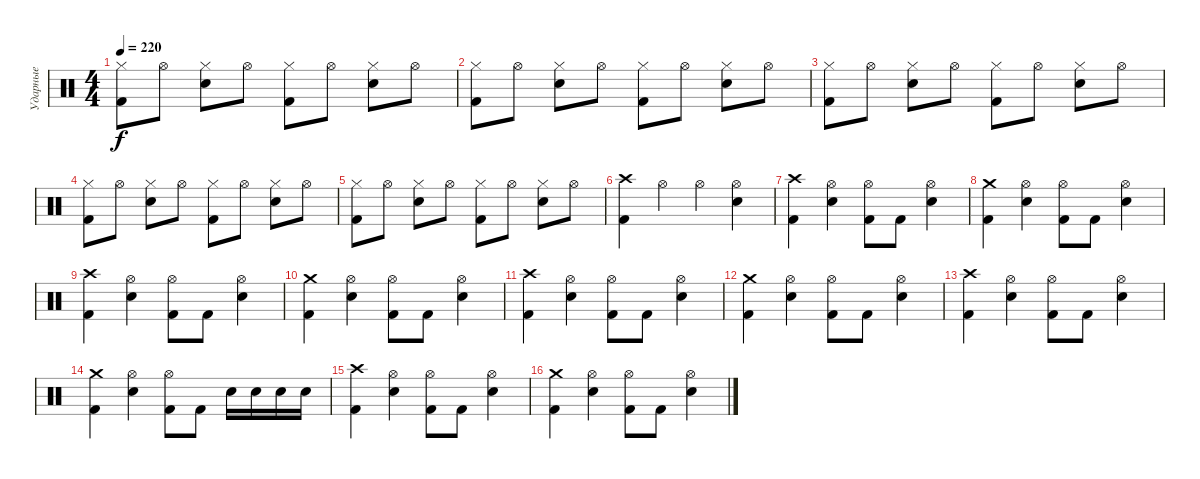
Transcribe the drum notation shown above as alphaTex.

\track ("Ударные" "Ударные") {instrument percussion}
\staff {score}
\articulation defaults
\ts (4 4)
\tempo 220
\clef neutral
\ks c
("Hi-Hat (closed)" "Kick (hit) 2").8{dy f} "Hi-Hat (open)".8 ("Hi-Hat (closed)" "Electric Snare (hit)").8 "Hi-Hat (open)".8 ("Hi-Hat (closed)" "Kick (hit) 2").8 "Hi-Hat (open)".8 ("Hi-Hat (closed)" "Electric Snare (hit)").8 "Hi-Hat (open)".8 |
("Hi-Hat (closed)" "Kick (hit) 2").8 "Hi-Hat (open)".8 ("Hi-Hat (closed)" "Electric Snare (hit)").8 "Hi-Hat (open)".8 ("Hi-Hat (closed)" "Kick (hit) 2").8 "Hi-Hat (open)".8 ("Hi-Hat (closed)" "Electric Snare (hit)").8 "Hi-Hat (open)".8 |
("Hi-Hat (closed)" "Kick (hit) 2").8 "Hi-Hat (open)".8 ("Hi-Hat (closed)" "Electric Snare (hit)").8 "Hi-Hat (open)".8 ("Hi-Hat (closed)" "Kick (hit) 2").8 "Hi-Hat (open)".8 ("Hi-Hat (closed)" "Electric Snare (hit)").8 "Hi-Hat (open)".8 |
("Hi-Hat (closed)" "Kick (hit) 2").8 "Hi-Hat (open)".8 ("Hi-Hat (closed)" "Electric Snare (hit)").8 "Hi-Hat (open)".8 ("Hi-Hat (closed)" "Kick (hit) 2").8 "Hi-Hat (open)".8 ("Hi-Hat (closed)" "Electric Snare (hit)").8 "Hi-Hat (open)".8 |
("Hi-Hat (closed)" "Kick (hit) 2").8 "Hi-Hat (open)".8 ("Hi-Hat (closed)" "Electric Snare (hit)").8 "Hi-Hat (open)".8 ("Hi-Hat (closed)" "Kick (hit) 2").8 "Hi-Hat (open)".8 ("Hi-Hat (closed)" "Electric Snare (hit)").8 "Hi-Hat (open)".8 |
("Crash high (hit)" "Kick (hit) 2").4 "Hi-Hat (open)".4 "Hi-Hat (open)".4 ("Hi-Hat (open)" "Electric Snare (hit)").4 |
("Crash high (hit)" "Kick (hit) 2").4 ("Hi-Hat (open)" "Electric Snare (hit)").4 ("Hi-Hat (open)" "Kick (hit) 2").8 "Kick (hit) 2".8 ("Hi-Hat (open)" "Electric Snare (hit)").4 |
("Crash medium (hit)" "Kick (hit) 2").4 ("Hi-Hat (open)" "Electric Snare (hit)").4 ("Hi-Hat (open)" "Kick (hit) 2").8 "Kick (hit) 2".8 ("Hi-Hat (open)" "Electric Snare (hit)").4 |
("Crash high (hit)" "Kick (hit) 2").4 ("Hi-Hat (open)" "Electric Snare (hit)").4 ("Hi-Hat (open)" "Kick (hit) 2").8 "Kick (hit) 2".8 ("Hi-Hat (open)" "Electric Snare (hit)").4 |
("Crash medium (hit)" "Kick (hit) 2").4 ("Hi-Hat (open)" "Electric Snare (hit)").4 ("Hi-Hat (open)" "Kick (hit) 2").8 "Kick (hit) 2".8 ("Hi-Hat (open)" "Electric Snare (hit)").4 |
("Crash high (hit)" "Kick (hit) 2").4 ("Hi-Hat (open)" "Electric Snare (hit)").4 ("Hi-Hat (open)" "Kick (hit) 2").8 "Kick (hit) 2".8 ("Hi-Hat (open)" "Electric Snare (hit)").4 |
("Crash medium (hit)" "Kick (hit) 2").4 ("Hi-Hat (open)" "Electric Snare (hit)").4 ("Hi-Hat (open)" "Kick (hit) 2").8 "Kick (hit) 2".8 ("Hi-Hat (open)" "Electric Snare (hit)").4 |
("Crash high (hit)" "Kick (hit) 2").4 ("Hi-Hat (open)" "Electric Snare (hit)").4 ("Hi-Hat (open)" "Kick (hit) 2").8 "Kick (hit) 2".8 ("Hi-Hat (open)" "Electric Snare (hit)").4 |
("Crash medium (hit)" "Kick (hit) 2").4 ("Hi-Hat (open)" "Electric Snare (hit)").4 ("Hi-Hat (open)" "Kick (hit) 2").8 "Kick (hit) 2".8 "Electric Snare (hit)".16 "Electric Snare (hit)".16 "Electric Snare (hit)".16 "Electric Snare (hit)".16 |
("Crash high (hit)" "Kick (hit) 2").4 ("Hi-Hat (open)" "Electric Snare (hit)").4 ("Hi-Hat (open)" "Kick (hit) 2").8 "Kick (hit) 2".8 ("Hi-Hat (open)" "Electric Snare (hit)").4 |
("Crash medium (hit)" "Kick (hit) 2").4 ("Hi-Hat (open)" "Electric Snare (hit)").4 ("Hi-Hat (open)" "Kick (hit) 2").8 "Kick (hit) 2".8 ("Hi-Hat (open)" "Electric Snare (hit)").4
